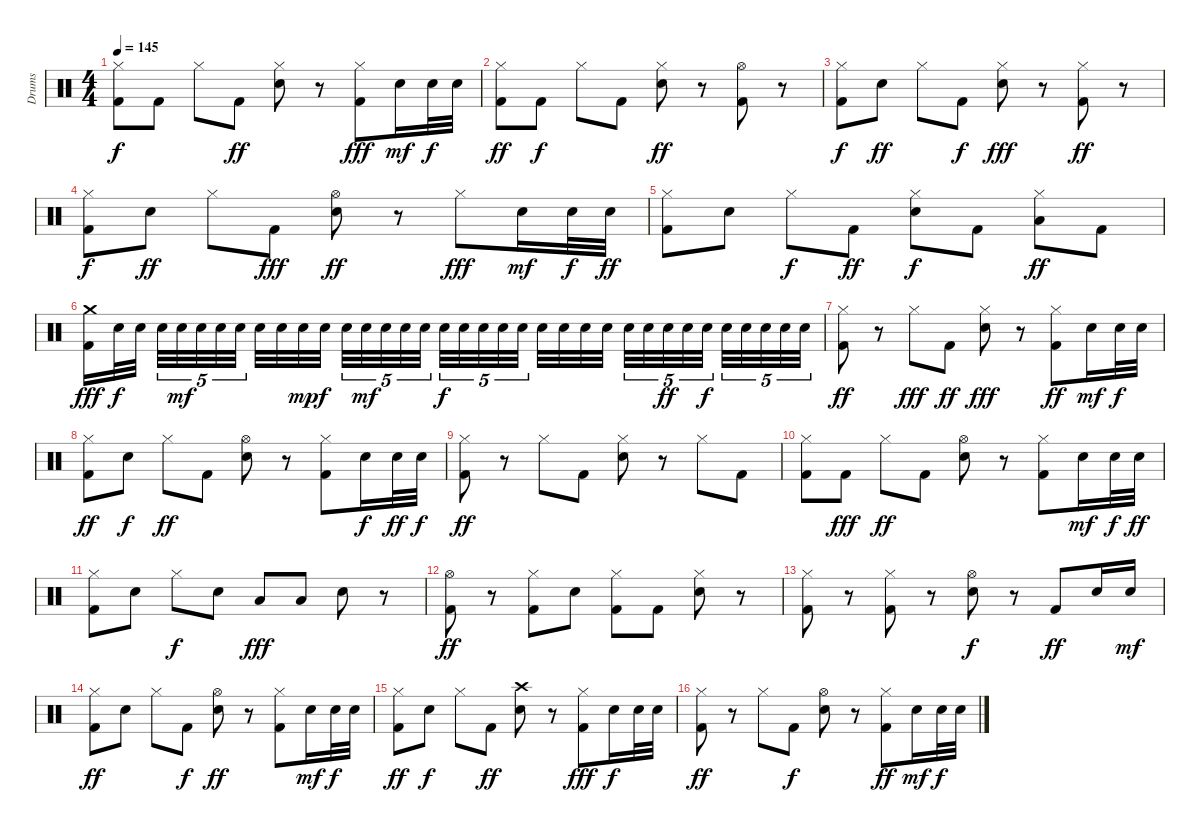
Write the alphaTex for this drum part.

\track ("Drums" "Drums") {instrument percussion}
\staff {score}
\articulation defaults
\ts (4 4)
\tempo 145
\clef neutral
\ks c
("Hi-Hat (closed)" "Kick (hit) 2").8{dy f} "Kick (hit) 2".8 "Hi-Hat (closed)".8 "Kick (hit) 2".8{dy ff} ("Hi-Hat (closed)" "Snare (hit) 2").8 r.8 ("Hi-Hat (closed)" "Kick (hit) 2").8{dy fff} "Snare (hit) 2".16{dy mf} "Snare (hit) 2".32{dy f} "Snare (hit) 2".32 |
("Hi-Hat (closed)" "Kick (hit) 2").8{dy ff} "Kick (hit) 2".8{dy f} "Hi-Hat (closed)".8 "Kick (hit) 2".8 ("Hi-Hat (closed)" "Snare (hit) 2").8{dy ff} r.8 ("Hi-Hat (open)" "Kick (hit) 2").8 r.8 |
("Hi-Hat (closed)" "Kick (hit) 2").8{dy f} "Snare (hit) 2".8{dy ff} "Hi-Hat (closed)".8 "Kick (hit) 2".8{dy f} ("Hi-Hat (closed)" "Snare (hit) 2").8{dy fff} r.8 ("Hi-Hat (closed)" "Kick (hit) 2").8{dy ff} r.8 |
("Hi-Hat (closed)" "Kick (hit) 2").8{dy f} "Snare (hit) 2".8{dy ff} "Hi-Hat (closed)".8 "Kick (hit) 2".8{dy fff} ("Hi-Hat (open)" "Snare (hit) 2").8{dy ff} r.8 "Hi-Hat (closed)".8{dy fff} "Snare (hit) 2".16{dy mf} "Snare (hit) 2".32{dy f} "Snare (hit) 2".32{dy ff} |
("Hi-Hat (closed)" "Kick (hit) 2").8 "Snare (hit) 2".8 "Hi-Hat (closed)".8{dy f} "Kick (hit) 2".8{dy ff} ("Hi-Hat (closed)" "Snare (hit) 2").8{dy f} "Kick (hit) 2".8 ("Hi-Hat (closed)" "Low Tom (hit)").8{dy ff} "Kick (hit) 2".8 |
("Crash medium (hit)" "Kick (hit) 2").16{dy fff} "Snare (hit) 2".32{dy f} "Snare (hit) 2".32 "Snare (hit) 2".32{tu (5 4)} "Snare (hit) 2".32{tu (5 4) dy mf} "Snare (hit) 2".32{tu (5 4)} "Snare (hit) 2".32{tu (5 4)} "Snare (hit) 2".32{tu (5 4)} "Snare (hit) 2".32 "Snare (hit) 2".32 "Snare (hit) 2".32{dy mp} "Snare (hit) 2".32{dy f} "Snare (hit) 2".32{tu (5 4)} "Snare (hit) 2".32{tu (5 4) dy mf} "Snare (hit) 2".32{tu (5 4)} "Snare (hit) 2".32{tu (5 4)} "Snare (hit) 2".32{tu (5 4)} "Snare (hit) 2".32{tu (5 4) dy f} "Snare (hit) 2".32{tu (5 4)} "Snare (hit) 2".32{tu (5 4)} "Snare (hit) 2".32{tu (5 4)} "Snare (hit) 2".32{tu (5 4)} "Snare (hit) 2".32 "Snare (hit) 2".32 "Snare (hit) 2".32 "Snare (hit) 2".32 "Snare (hit) 2".32{tu (5 4)} "Snare (hit) 2".32{tu (5 4)} "Snare (hit) 2".32{tu (5 4) dy ff} "Snare (hit) 2".32{tu (5 4)} "Snare (hit) 2".32{tu (5 4) dy f} "Snare (hit) 2".32{tu (5 4)} "Snare (hit) 2".32{tu (5 4)} "Snare (hit) 2".32{tu (5 4)} "Snare (hit) 2".32{tu (5 4)} "Snare (hit) 2".32{tu (5 4)} |
("Hi-Hat (closed)" "Kick (hit) 2").8{dy ff} r.8 "Hi-Hat (closed)".8{dy fff} "Kick (hit) 2".8{dy ff} ("Hi-Hat (closed)" "Snare (hit) 2").8{dy fff} r.8 ("Hi-Hat (closed)" "Kick (hit) 2").8{dy ff} "Snare (hit) 2".16{dy mf} "Snare (hit) 2".32{dy f} "Snare (hit) 2".32 |
("Hi-Hat (closed)" "Kick (hit) 2").8{dy ff} "Snare (hit) 2".8{dy f} "Hi-Hat (closed)".8{dy ff} "Kick (hit) 2".8 ("Hi-Hat (open)" "Snare (hit) 2").8 r.8 ("Hi-Hat (closed)" "Kick (hit) 2").8 "Snare (hit) 2".16{dy f} "Snare (hit) 2".32{dy ff} "Snare (hit) 2".32{dy f} |
("Hi-Hat (closed)" "Kick (hit) 2").8{dy ff} r.8 "Hi-Hat (closed)".8 "Kick (hit) 2".8 ("Hi-Hat (closed)" "Snare (hit) 2").8 r.8 "Hi-Hat (closed)".8 "Kick (hit) 2".8 |
("Hi-Hat (closed)" "Kick (hit) 2").8 "Kick (hit) 2".8{dy fff} "Hi-Hat (closed)".8{dy ff} "Kick (hit) 2".8 ("Hi-Hat (open)" "Snare (hit) 2").8 r.8 ("Hi-Hat (closed)" "Kick (hit) 2").8 "Snare (hit) 2".16{dy mf} "Snare (hit) 2".32{dy f} "Snare (hit) 2".32{dy ff} |
("Hi-Hat (closed)" "Kick (hit) 2").8 "Snare (hit) 2".8 "Hi-Hat (closed)".8{dy f} "Snare (hit) 2".8 "Low Tom (hit)".8{dy fff} "Low Tom (hit)".8 "Snare (hit) 2".8 r.8 |
("Hi-Hat (open)" "Kick (hit) 2").8{dy ff} r.8 ("Hi-Hat (closed)" "Kick (hit) 2").8 "Snare (hit) 2".8 ("Hi-Hat (closed)" "Kick (hit) 2").8 "Kick (hit) 2".8 ("Hi-Hat (closed)" "Snare (hit) 2").8 r.8 |
("Hi-Hat (closed)" "Kick (hit) 2").8 r.8 ("Hi-Hat (closed)" "Kick (hit) 2").8 r.8 ("Hi-Hat (open)" "Snare (hit) 2").8{dy f} r.8 "Kick (hit) 2".8{dy ff} "Snare (hit) 2".16 "Snare (hit) 2".16{dy mf} |
("Hi-Hat (closed)" "Kick (hit) 2").8{dy ff} "Snare (hit) 2".8 "Hi-Hat (closed)".8 "Kick (hit) 2".8{dy f} ("Hi-Hat (open)" "Snare (hit) 2").8{dy ff} r.8 ("Hi-Hat (closed)" "Kick (hit) 2").8 "Snare (hit) 2".16{dy mf} "Snare (hit) 2".32{dy f} "Snare (hit) 2".32 |
("Hi-Hat (closed)" "Kick (hit) 2").8{dy ff} "Snare (hit) 2".8{dy f} "Hi-Hat (closed)".8 "Kick (hit) 2".8{dy ff} ("Crash high (hit)" "Snare (hit) 2").8 r.8 ("Hi-Hat (closed)" "Kick (hit) 2").8{dy fff} "Snare (hit) 2".16{dy f} "Snare (hit) 2".32 "Snare (hit) 2".32 |
("Hi-Hat (closed)" "Kick (hit) 2").8{dy ff} r.8 "Hi-Hat (closed)".8 "Kick (hit) 2".8{dy f} ("Hi-Hat (open)" "Snare (hit) 2").8 r.8 ("Hi-Hat (closed)" "Kick (hit) 2").8{dy ff} "Snare (hit) 2".16{dy mf} "Snare (hit) 2".32{dy f} "Snare (hit) 2".32
